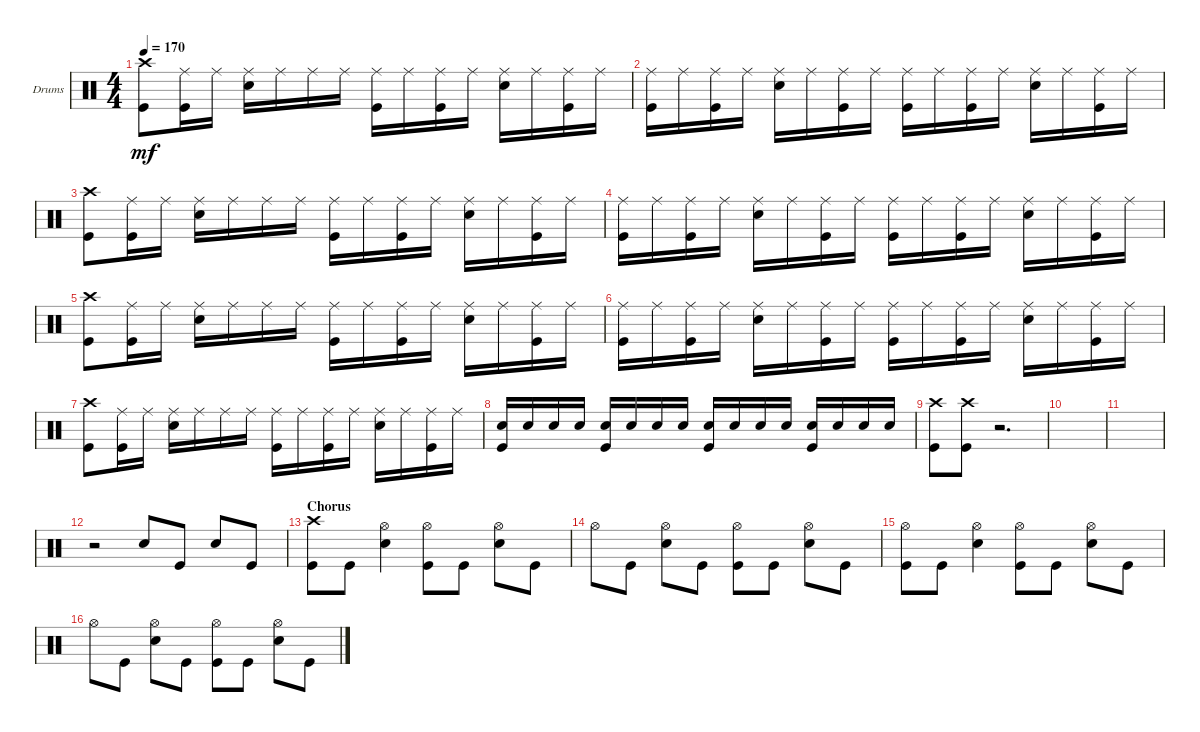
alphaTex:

\defaultSystemsLayout 4
\bracketExtendMode groupsimilarinstruments
\firstSystemTrackNameOrientation horizontal
\otherSystemsTrackNameOrientation horizontal
\track ("Drumkit" "Drums") {instrument percussion}
\staff {score}
\articulation defaults
\ts (4 4)
\tempo 170
\clef neutral
\ks c
("Crash high (hit)" "Kick (hit)").8{dy mf} ("Kick (hit)" "Ride (middle)").16 "Ride (middle)".16 ("Ride (middle)" "Snare (hit) 2").16 "Ride (middle)".16 "Ride (middle)".16 "Ride (middle)".16 ("Kick (hit)" "Ride (middle)").16 "Ride (middle)".16 ("Kick (hit)" "Ride (middle)").16 "Ride (middle)".16 ("Ride (middle)" "Snare (hit) 2").16 "Ride (middle)".16 ("Kick (hit)" "Ride (middle)").16 "Ride (middle)".16 |
("Ride (middle)" "Kick (hit)").16 "Ride (middle)".16 ("Kick (hit)" "Ride (middle)").16 "Ride (middle)".16 ("Ride (middle)" "Snare (hit) 2").16 "Ride (middle)".16 ("Ride (middle)" "Kick (hit)").16 "Ride (middle)".16 ("Kick (hit)" "Ride (middle)").16 "Ride (middle)".16 ("Ride (middle)" "Kick (hit)").16 "Ride (middle)".16 ("Ride (middle)" "Snare (hit) 2").16 "Ride (middle)".16 ("Ride (middle)" "Kick (hit)").16 "Ride (middle)".16 |
("Crash high (hit)" "Kick (hit)").8 ("Kick (hit)" "Ride (middle)").16 "Ride (middle)".16 ("Ride (middle)" "Snare (hit) 2").16 "Ride (middle)".16 "Ride (middle)".16 "Ride (middle)".16 ("Kick (hit)" "Ride (middle)").16 "Ride (middle)".16 ("Kick (hit)" "Ride (middle)").16 "Ride (middle)".16 ("Ride (middle)" "Snare (hit) 2").16 "Ride (middle)".16 ("Kick (hit)" "Ride (middle)").16 "Ride (middle)".16 |
("Ride (middle)" "Kick (hit)").16 "Ride (middle)".16 ("Kick (hit)" "Ride (middle)").16 "Ride (middle)".16 ("Ride (middle)" "Snare (hit) 2").16 "Ride (middle)".16 ("Ride (middle)" "Kick (hit)").16 "Ride (middle)".16 ("Kick (hit)" "Ride (middle)").16 "Ride (middle)".16 ("Ride (middle)" "Kick (hit)").16 "Ride (middle)".16 ("Ride (middle)" "Snare (hit) 2").16 "Ride (middle)".16 ("Ride (middle)" "Kick (hit)").16 "Ride (middle)".16 |
("Crash high (hit)" "Kick (hit)").8 ("Kick (hit)" "Ride (middle)").16 "Ride (middle)".16 ("Ride (middle)" "Snare (hit) 2").16 "Ride (middle)".16 "Ride (middle)".16 "Ride (middle)".16 ("Kick (hit)" "Ride (middle)").16 "Ride (middle)".16 ("Kick (hit)" "Ride (middle)").16 "Ride (middle)".16 ("Ride (middle)" "Snare (hit) 2").16 "Ride (middle)".16 ("Kick (hit)" "Ride (middle)").16 "Ride (middle)".16 |
("Ride (middle)" "Kick (hit)").16 "Ride (middle)".16 ("Kick (hit)" "Ride (middle)").16 "Ride (middle)".16 ("Ride (middle)" "Snare (hit) 2").16 "Ride (middle)".16 ("Ride (middle)" "Kick (hit)").16 "Ride (middle)".16 ("Kick (hit)" "Ride (middle)").16 "Ride (middle)".16 ("Ride (middle)" "Kick (hit)").16 "Ride (middle)".16 ("Ride (middle)" "Snare (hit) 2").16 "Ride (middle)".16 ("Ride (middle)" "Kick (hit)").16 "Ride (middle)".16 |
("Crash high (hit)" "Kick (hit)").8 ("Kick (hit)" "Ride (middle)").16 "Ride (middle)".16 ("Ride (middle)" "Snare (hit) 2").16 "Ride (middle)".16 "Ride (middle)".16 "Ride (middle)".16 ("Kick (hit)" "Ride (middle)").16 "Ride (middle)".16 ("Kick (hit)" "Ride (middle)").16 "Ride (middle)".16 ("Ride (middle)" "Snare (hit) 2").16 "Ride (middle)".16 ("Kick (hit)" "Ride (middle)").16 "Ride (middle)".16 |
("Kick (hit)" "Snare (hit) 2").16 "Snare (hit) 2".16 "Snare (hit) 2".16 "Snare (hit) 2".16 ("Snare (hit) 2" "Kick (hit)").16 "Snare (hit) 2".16 "Snare (hit) 2".16 "Snare (hit) 2".16 ("Snare (hit) 2" "Kick (hit)").16 "Snare (hit) 2".16 "Snare (hit) 2".16 "Snare (hit) 2".16 ("Snare (hit) 2" "Kick (hit)").16 "Snare (hit) 2".16 "Snare (hit) 2".16 "Snare (hit) 2".16 |
("Crash high (hit)" "Kick (hit)").8 ("Crash high (hit)" "Kick (hit)").8 r.2{d} |
|
|
r.2 "Snare (hit) 2".8 "Kick (hit)".8 "Snare (hit) 2".8 "Kick (hit)".8 |
\section ("" "Chorus")
("Crash high (hit)" "Kick (hit)").8 "Kick (hit)".8 ("Snare (hit) 2" "Hi-Hat (open)").4 ("Kick (hit)" "Hi-Hat (open)").8 "Kick (hit)".8 ("Snare (hit) 2" "Hi-Hat (open)").8 "Kick (hit)".8 |
"Hi-Hat (open)".8 "Kick (hit)".8 ("Snare (hit) 2" "Hi-Hat (open)").8 "Kick (hit)".8 ("Kick (hit)" "Hi-Hat (open)").8 "Kick (hit)".8 ("Snare (hit) 2" "Hi-Hat (open)").8 "Kick (hit)".8 |
("Kick (hit)" "Hi-Hat (open)").8 "Kick (hit)".8 ("Snare (hit) 2" "Hi-Hat (open)").4 ("Kick (hit)" "Hi-Hat (open)").8 "Kick (hit)".8 ("Snare (hit) 2" "Hi-Hat (open)").8 "Kick (hit)".8 |
"Hi-Hat (open)".8 "Kick (hit)".8 ("Snare (hit) 2" "Hi-Hat (open)").8 "Kick (hit)".8 ("Kick (hit)" "Hi-Hat (open)").8 "Kick (hit)".8 ("Snare (hit) 2" "Hi-Hat (open)").8 "Kick (hit)".8
